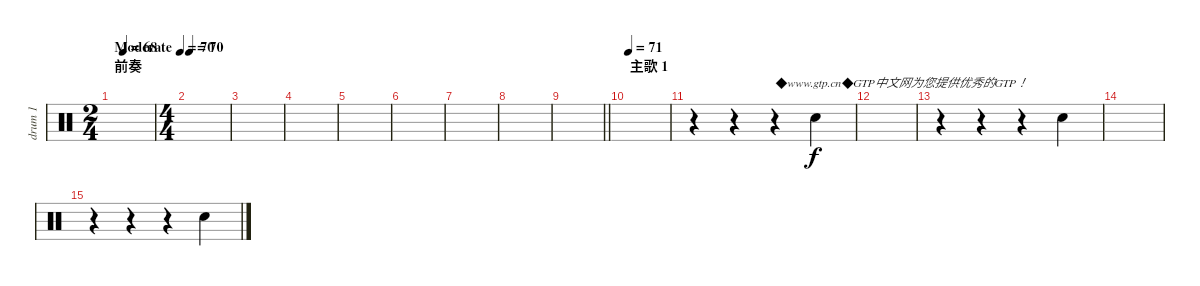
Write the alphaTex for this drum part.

\track ("drum 1" "drum 1") {instrument percussion}
\staff {score}
\articulation defaults
\ts (2 4)
\section ("" "前奏")
\tempo (70 "Moderate")
\tempo 65
\tempo (68 0.25)
\tempo (70 "Moderate")
\clef neutral
\ks c
|
\ts (4 4)
\tempo 70
|
|
|
|
|
|
|
\barLineRight lightlight
|
\section ("" "主歌 1")
\tempo 71
|
r.4 r.4 r.4{txt "◆www.gtp.cn◆GTP中文网为您提供优秀的GTP！"} "Metronome (bell)".4 |
|
r.4 r.4 r.4 "Metronome (bell)".4 |
|
r.4 r.4 r.4 "Metronome (bell)".4
